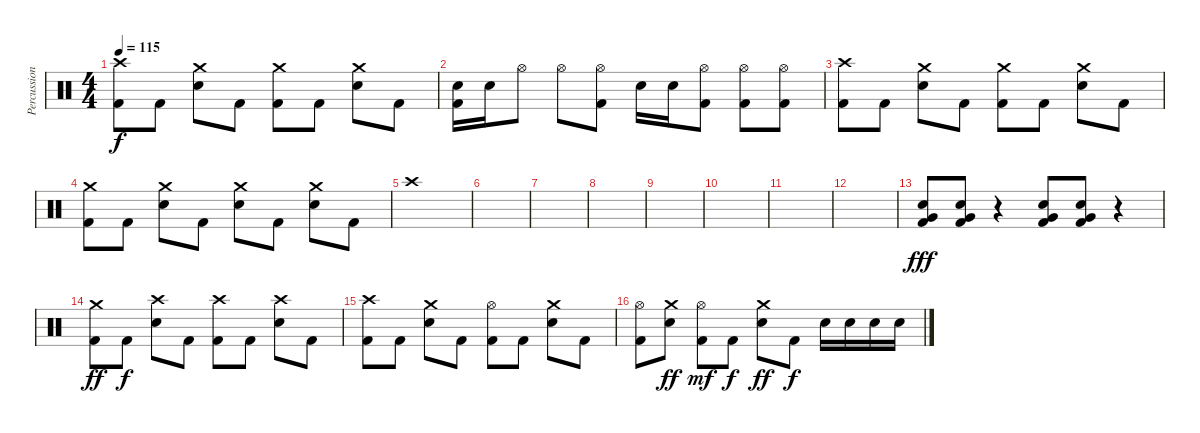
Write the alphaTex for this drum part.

\track ("Percussion" "Percussion") {instrument percussion}
\staff {score}
\articulation defaults
\ts (4 4)
\tempo 115
\clef neutral
\ks c
("Crash high (hit)" "Kick (hit) 2").8{dy f} "Kick (hit) 2".8 ("Crash medium (hit)" "Electric Snare (hit)").8 "Kick (hit) 2".8 ("Crash medium (hit)" "Kick (hit) 2").8 "Kick (hit) 2".8 ("Crash medium (hit)" "Electric Snare (hit)").8 "Kick (hit) 2".8 |
("Electric Snare (hit)" "Kick (hit) 2").16 "Electric Snare (hit)".16 "Hi-Hat (open)".8 "Hi-Hat (open)".8 ("Hi-Hat (open)" "Kick (hit) 2").8 "Electric Snare (hit)".16 "Electric Snare (hit)".16 ("Hi-Hat (open)" "Kick (hit) 2").8 ("Hi-Hat (open)" "Kick (hit) 2").8 ("Hi-Hat (open)" "Kick (hit) 2").8 |
("Crash high (hit)" "Kick (hit) 2").8 "Kick (hit) 2".8 ("Crash medium (hit)" "Electric Snare (hit)").8 "Kick (hit) 2".8 ("Crash medium (hit)" "Kick (hit) 2").8 "Kick (hit) 2".8 ("Crash medium (hit)" "Electric Snare (hit)").8 "Kick (hit) 2".8 |
("Crash medium (hit)" "Kick (hit) 2").8 "Kick (hit) 2".8 ("Crash medium (hit)" "Electric Snare (hit)").8 "Kick (hit) 2".8 ("Crash medium (hit)" "Electric Snare (hit)").8 "Kick (hit) 2".8 ("Crash medium (hit)" "Electric Snare (hit)").8 "Kick (hit) 2".8 |
"Crash high (hit)".1 |
|
|
|
|
|
|
|
("Electric Snare (hit)" "Very Low Tom (hit)" "Kick (hit) 2").8{dy fff} ("Electric Snare (hit)" "Very Low Tom (hit)" "Kick (hit) 2").8 r.4 ("Electric Snare (hit)" "Very Low Tom (hit)" "Kick (hit) 2").8 ("Electric Snare (hit)" "Very Low Tom (hit)" "Kick (hit) 2").8 r.4 |
("Crash medium (hit)" "Kick (hit) 2").8{dy ff} "Kick (hit) 2".8{dy f} ("Crash high (hit)" "Electric Snare (hit)").8 "Kick (hit) 2".8 ("Crash high (hit)" "Kick (hit) 2").8 "Kick (hit) 2".8 ("Crash high (hit)" "Electric Snare (hit)").8 "Kick (hit) 2".8 |
("Crash high (hit)" "Kick (hit) 2").8 "Kick (hit) 2".8 ("Crash medium (hit)" "Electric Snare (hit)").8 "Kick (hit) 2".8 ("Hi-Hat (open)" "Kick (hit) 2").8 "Kick (hit) 2".8 ("Crash medium (hit)" "Electric Snare (hit)").8 "Kick (hit) 2".8 |
("Hi-Hat (open)" "Kick (hit) 2").8 ("Crash medium (hit)" "Electric Snare (hit)").8{dy ff} ("Hi-Hat (open)" "Kick (hit) 2").8{dy mf} "Kick (hit) 2".8{dy f} ("Crash medium (hit)" "Electric Snare (hit)").8{dy ff} "Kick (hit) 2".8{dy f} "Electric Snare (hit)".16 "Electric Snare (hit)".16 "Electric Snare (hit)".16 "Electric Snare (hit)".16
